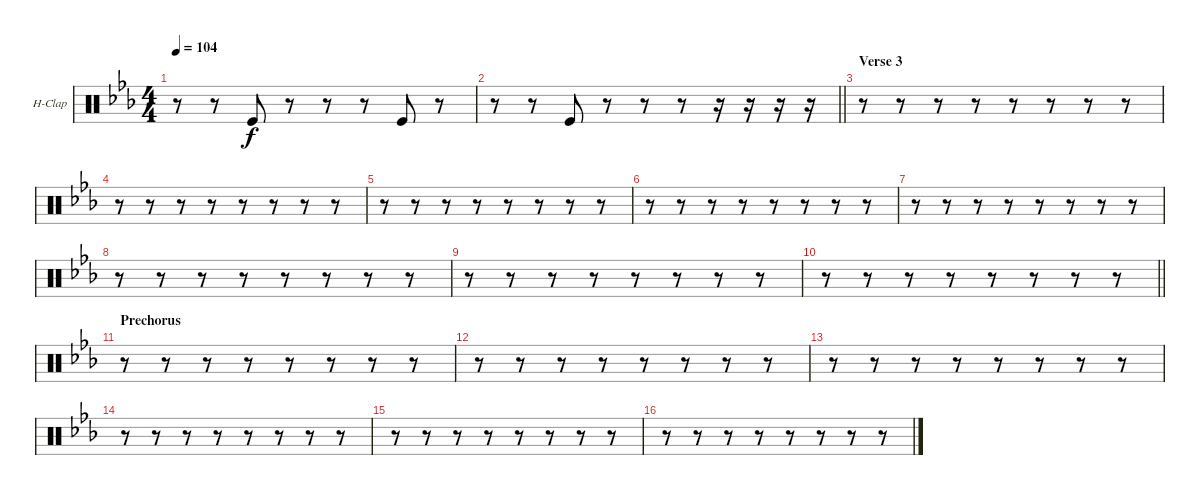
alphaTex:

\bracketExtendMode groupsimilarinstruments
\firstSystemTrackNameOrientation horizontal
\otherSystemsTrackNameOrientation horizontal
\track ("Hand Clap" "H-Clap") {instrument percussion}
\staff {score}
\articulation defaults
\ts (4 4)
\tempo 104
\clef neutral
\ks eb
r.8{dy f} r.8 "Kick (hit)".8 r.8 r.8 r.8 "Kick (hit)".8 r.8 |
\barLineRight lightlight
r.8 r.8 "Kick (hit)".8 r.8 r.8 r.8 r.16 r.16 r.16 r.16 |
\section ("" "Verse 3")
r.8 r.8 r.8 r.8 r.8 r.8 r.8 r.8 |
r.8 r.8 r.8 r.8 r.8 r.8 r.8 r.8 |
r.8 r.8 r.8 r.8 r.8 r.8 r.8 r.8 |
r.8 r.8 r.8 r.8 r.8 r.8 r.8 r.8 |
r.8 r.8 r.8 r.8 r.8 r.8 r.8 r.8 |
r.8 r.8 r.8 r.8 r.8 r.8 r.8 r.8 |
r.8 r.8 r.8 r.8 r.8 r.8 r.8 r.8 |
\barLineRight lightlight
r.8 r.8 r.8 r.8 r.8 r.8 r.8 r.8 |
\section ("" "Prechorus")
r.8 r.8 r.8 r.8 r.8 r.8 r.8 r.8 |
r.8 r.8 r.8 r.8 r.8 r.8 r.8 r.8 |
r.8 r.8 r.8 r.8 r.8 r.8 r.8 r.8 |
r.8 r.8 r.8 r.8 r.8 r.8 r.8 r.8 |
r.8 r.8 r.8 r.8 r.8 r.8 r.8 r.8 |
r.8 r.8 r.8 r.8 r.8 r.8 r.8 r.8
